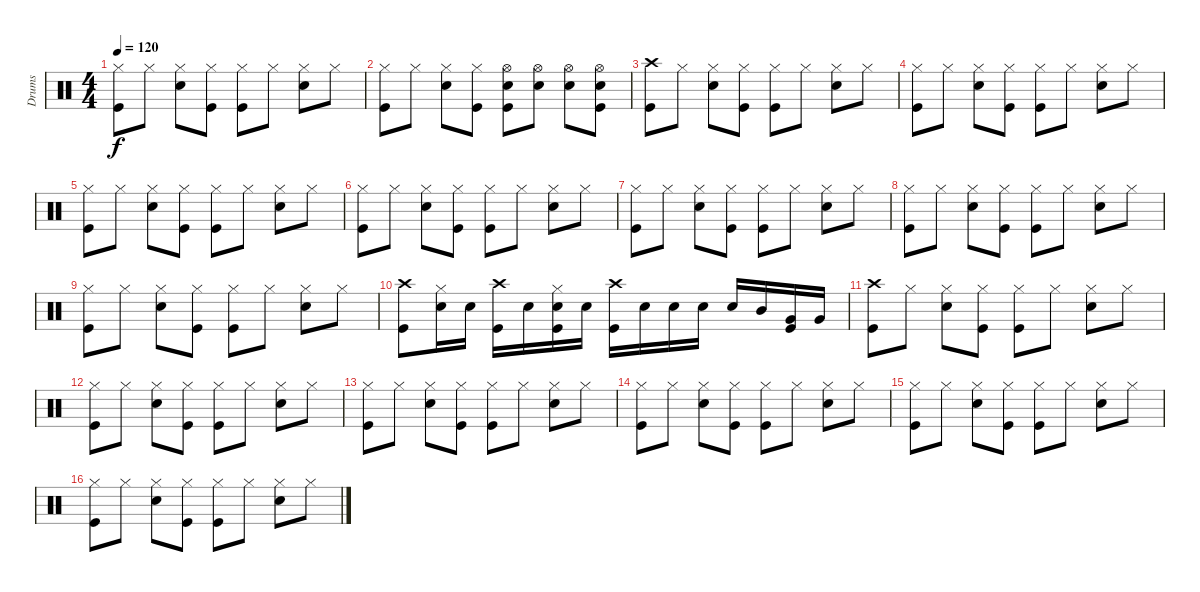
\track ("Drums" "Drums") {instrument percussion}
\staff {score}
\articulation defaults
\ts (4 4)
\tempo 120
\clef neutral
\ks c
("Kick (hit)" "Hi-Hat (closed)").8{dy f} "Hi-Hat (closed)".8 ("Electric Snare (hit)" "Hi-Hat (closed)").8 ("Kick (hit)" "Hi-Hat (closed)").8 ("Kick (hit)" "Hi-Hat (closed)").8 "Hi-Hat (closed)".8 ("Electric Snare (hit)" "Hi-Hat (closed)").8 "Hi-Hat (closed)".8 |
("Kick (hit)" "Hi-Hat (closed)").8 "Hi-Hat (closed)".8 ("Electric Snare (hit)" "Hi-Hat (closed)").8 ("Kick (hit)" "Hi-Hat (closed)").8 ("Kick (hit)" "Electric Snare (hit)" "Hi-Hat (open)").8 ("Electric Snare (hit)" "Hi-Hat (open)").8 ("Electric Snare (hit)" "Hi-Hat (open)").8 ("Kick (hit)" "Electric Snare (hit)" "Hi-Hat (open)").8 |
("Kick (hit)" "Crash high (hit)").8 "Hi-Hat (closed)".8 ("Electric Snare (hit)" "Hi-Hat (closed)").8 ("Kick (hit)" "Hi-Hat (closed)").8 ("Kick (hit)" "Hi-Hat (closed)").8 "Hi-Hat (closed)".8 ("Electric Snare (hit)" "Hi-Hat (closed)").8 "Hi-Hat (closed)".8 |
("Kick (hit)" "Hi-Hat (closed)").8 "Hi-Hat (closed)".8 ("Electric Snare (hit)" "Hi-Hat (closed)").8 ("Kick (hit)" "Hi-Hat (closed)").8 ("Kick (hit)" "Hi-Hat (closed)").8 "Hi-Hat (closed)".8 ("Electric Snare (hit)" "Hi-Hat (closed)").8 "Hi-Hat (closed)".8 |
("Kick (hit)" "Hi-Hat (closed)").8 "Hi-Hat (closed)".8 ("Electric Snare (hit)" "Hi-Hat (closed)").8 ("Kick (hit)" "Hi-Hat (closed)").8 ("Kick (hit)" "Hi-Hat (closed)").8 "Hi-Hat (closed)".8 ("Electric Snare (hit)" "Hi-Hat (closed)").8 "Hi-Hat (closed)".8 |
("Kick (hit)" "Hi-Hat (closed)").8 "Hi-Hat (closed)".8 ("Electric Snare (hit)" "Hi-Hat (closed)").8 ("Kick (hit)" "Hi-Hat (closed)").8 ("Kick (hit)" "Hi-Hat (closed)").8 "Hi-Hat (closed)".8 ("Electric Snare (hit)" "Hi-Hat (closed)").8 "Hi-Hat (closed)".8 |
("Kick (hit)" "Hi-Hat (closed)").8 "Hi-Hat (closed)".8 ("Electric Snare (hit)" "Hi-Hat (closed)").8 ("Kick (hit)" "Hi-Hat (closed)").8 ("Kick (hit)" "Hi-Hat (closed)").8 "Hi-Hat (closed)".8 ("Electric Snare (hit)" "Hi-Hat (closed)").8 "Hi-Hat (closed)".8 |
("Kick (hit)" "Hi-Hat (closed)").8 "Hi-Hat (closed)".8 ("Electric Snare (hit)" "Hi-Hat (closed)").8 ("Kick (hit)" "Hi-Hat (closed)").8 ("Kick (hit)" "Hi-Hat (closed)").8 "Hi-Hat (closed)".8 ("Electric Snare (hit)" "Hi-Hat (closed)").8 "Hi-Hat (closed)".8 |
("Kick (hit)" "Hi-Hat (closed)").8 "Hi-Hat (closed)".8 ("Electric Snare (hit)" "Hi-Hat (closed)").8 ("Kick (hit)" "Hi-Hat (closed)").8 ("Kick (hit)" "Hi-Hat (closed)").8 "Hi-Hat (closed)".8 ("Electric Snare (hit)" "Hi-Hat (closed)").8 "Hi-Hat (closed)".8 |
("Kick (hit)" "Crash high (hit)").8 ("Electric Snare (hit)" "Hi-Hat (closed)").16 "Electric Snare (hit)".16 ("Kick (hit)" "Crash high (hit)").16 "Electric Snare (hit)".16 ("Kick (hit)" "Electric Snare (hit)" "Hi-Hat (closed)").16 "Electric Snare (hit)".16 ("Kick (hit)" "Crash high (hit)").16 "Electric Snare (hit)".16 "Electric Snare (hit)".16 "Electric Snare (hit)".16 "Electric Snare (hit)".16 "Mid Tom (hit)".16 ("Kick (hit)" "Very Low Tom (hit)").16 "Very Low Tom (hit)".16 |
("Kick (hit)" "Crash high (hit)").8 "Hi-Hat (closed)".8 ("Electric Snare (hit)" "Hi-Hat (closed)").8 ("Kick (hit)" "Hi-Hat (closed)").8 ("Kick (hit)" "Hi-Hat (closed)").8 "Hi-Hat (closed)".8 ("Electric Snare (hit)" "Hi-Hat (closed)").8 "Hi-Hat (closed)".8 |
("Kick (hit)" "Hi-Hat (closed)").8 "Hi-Hat (closed)".8 ("Electric Snare (hit)" "Hi-Hat (closed)").8 ("Kick (hit)" "Hi-Hat (closed)").8 ("Kick (hit)" "Hi-Hat (closed)").8 "Hi-Hat (closed)".8 ("Electric Snare (hit)" "Hi-Hat (closed)").8 "Hi-Hat (closed)".8 |
("Kick (hit)" "Hi-Hat (closed)").8 "Hi-Hat (closed)".8 ("Electric Snare (hit)" "Hi-Hat (closed)").8 ("Kick (hit)" "Hi-Hat (closed)").8 ("Kick (hit)" "Hi-Hat (closed)").8 "Hi-Hat (closed)".8 ("Electric Snare (hit)" "Hi-Hat (closed)").8 "Hi-Hat (closed)".8 |
("Kick (hit)" "Hi-Hat (closed)").8 "Hi-Hat (closed)".8 ("Electric Snare (hit)" "Hi-Hat (closed)").8 ("Kick (hit)" "Hi-Hat (closed)").8 ("Kick (hit)" "Hi-Hat (closed)").8 "Hi-Hat (closed)".8 ("Electric Snare (hit)" "Hi-Hat (closed)").8 "Hi-Hat (closed)".8 |
("Kick (hit)" "Hi-Hat (closed)").8 "Hi-Hat (closed)".8 ("Electric Snare (hit)" "Hi-Hat (closed)").8 ("Kick (hit)" "Hi-Hat (closed)").8 ("Kick (hit)" "Hi-Hat (closed)").8 "Hi-Hat (closed)".8 ("Electric Snare (hit)" "Hi-Hat (closed)").8 "Hi-Hat (closed)".8 |
("Kick (hit)" "Hi-Hat (closed)").8 "Hi-Hat (closed)".8 ("Electric Snare (hit)" "Hi-Hat (closed)").8 ("Kick (hit)" "Hi-Hat (closed)").8 ("Kick (hit)" "Hi-Hat (closed)").8 "Hi-Hat (closed)".8 ("Electric Snare (hit)" "Hi-Hat (closed)").8 "Hi-Hat (closed)".8
